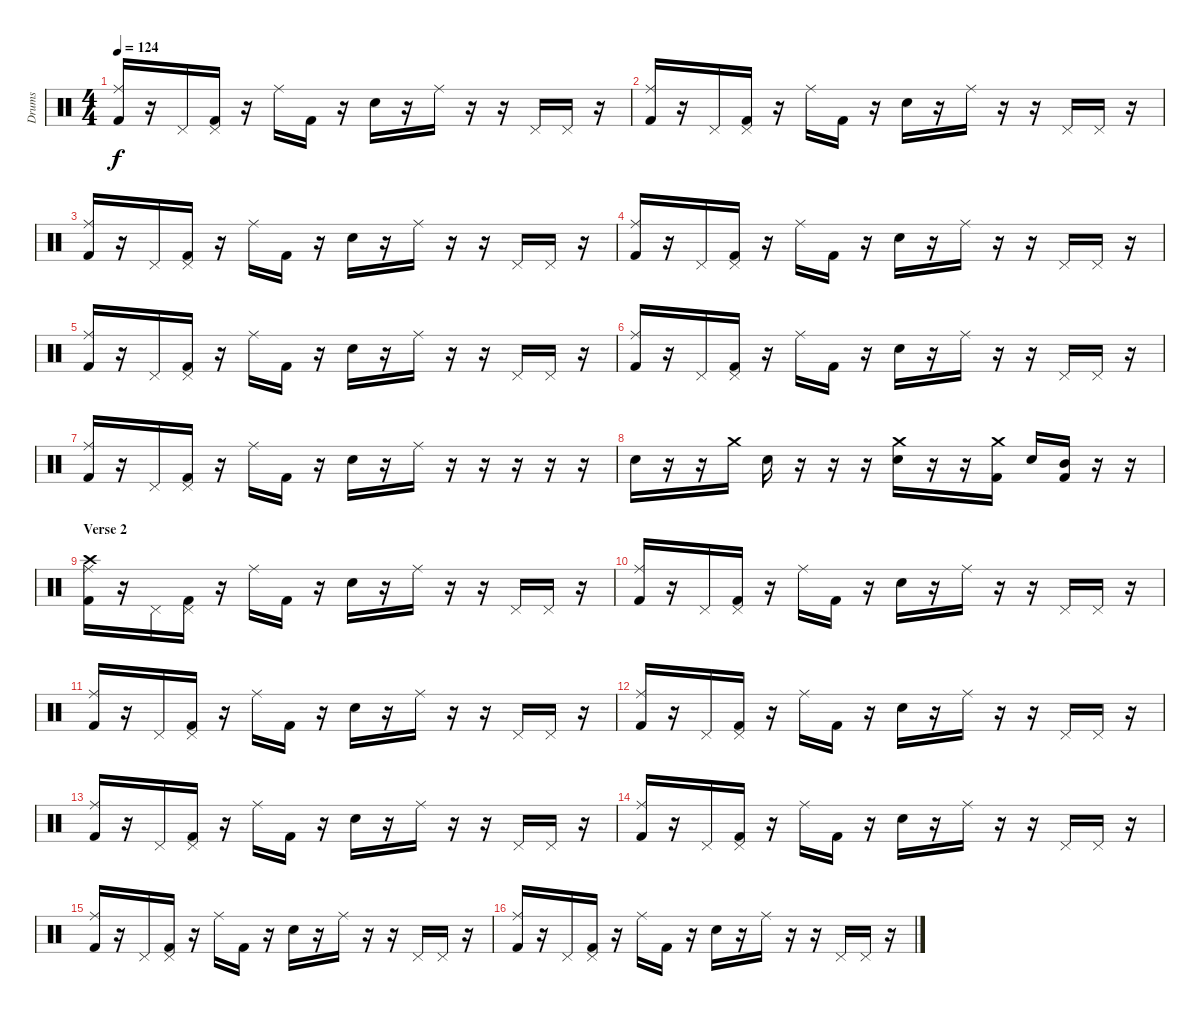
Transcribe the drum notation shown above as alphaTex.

\track ("Drums" "Drums") {instrument percussion}
\staff {score}
\articulation defaults
\ts (4 4)
\tempo 124
\clef neutral
\ks c
("Ride (middle)" "Kick (hit) 2").16{dy f} r.16 "Pedal Hi-Hat (hit)".16 ("Pedal Hi-Hat (hit)" "Kick (hit) 2").16 r.16 "Ride (middle)".16 "Kick (hit) 2".16 r.16 "Electric Snare (hit)".16 r.16 "Ride (middle)".16 r.16 r.16 "Pedal Hi-Hat (hit)".16 "Pedal Hi-Hat (hit)".16 r.16 |
("Ride (middle)" "Kick (hit) 2").16 r.16 "Pedal Hi-Hat (hit)".16 ("Pedal Hi-Hat (hit)" "Kick (hit) 2").16 r.16 "Ride (middle)".16 "Kick (hit) 2".16 r.16 "Electric Snare (hit)".16 r.16 "Ride (middle)".16 r.16 r.16 "Pedal Hi-Hat (hit)".16 "Pedal Hi-Hat (hit)".16 r.16 |
("Ride (middle)" "Kick (hit) 2").16 r.16 "Pedal Hi-Hat (hit)".16 ("Pedal Hi-Hat (hit)" "Kick (hit) 2").16 r.16 "Ride (middle)".16 "Kick (hit) 2".16 r.16 "Electric Snare (hit)".16 r.16 "Ride (middle)".16 r.16 r.16 "Pedal Hi-Hat (hit)".16 "Pedal Hi-Hat (hit)".16 r.16 |
("Ride (middle)" "Kick (hit) 2").16 r.16 "Pedal Hi-Hat (hit)".16 ("Pedal Hi-Hat (hit)" "Kick (hit) 2").16 r.16 "Ride (middle)".16 "Kick (hit) 2".16 r.16 "Electric Snare (hit)".16 r.16 "Ride (middle)".16 r.16 r.16 "Pedal Hi-Hat (hit)".16 "Pedal Hi-Hat (hit)".16 r.16 |
("Ride (middle)" "Kick (hit) 2").16 r.16 "Pedal Hi-Hat (hit)".16 ("Pedal Hi-Hat (hit)" "Kick (hit) 2").16 r.16 "Ride (middle)".16 "Kick (hit) 2".16 r.16 "Electric Snare (hit)".16 r.16 "Ride (middle)".16 r.16 r.16 "Pedal Hi-Hat (hit)".16 "Pedal Hi-Hat (hit)".16 r.16 |
("Ride (middle)" "Kick (hit) 2").16 r.16 "Pedal Hi-Hat (hit)".16 ("Pedal Hi-Hat (hit)" "Kick (hit) 2").16 r.16 "Ride (middle)".16 "Kick (hit) 2".16 r.16 "Electric Snare (hit)".16 r.16 "Ride (middle)".16 r.16 r.16 "Pedal Hi-Hat (hit)".16 "Pedal Hi-Hat (hit)".16 r.16 |
("Ride (middle)" "Kick (hit) 2").16 r.16 "Pedal Hi-Hat (hit)".16 ("Pedal Hi-Hat (hit)" "Kick (hit) 2").16 r.16 "Ride (middle)".16 "Kick (hit) 2".16 r.16 "Electric Snare (hit)".16 r.16 "Ride (middle)".16 r.16 r.16 r.16 r.16 r.16 |
"Electric Snare (hit)".16 r.16 r.16 "Crash medium (hit)".16 "Electric Snare (hit)".16 r.16 r.16 r.16 ("Crash medium (hit)" "Electric Snare (hit)").16 r.16 r.16 ("Crash medium (hit)" "Kick (hit) 2").16 "Electric Snare (hit)".16 ("Mid Tom (hit)" "Kick (hit) 2").16 r.16 r.16 |
\section ("" "Verse 2")
("Ride (middle)" "Crash high (hit)" "Kick (hit) 2").16 r.16 "Pedal Hi-Hat (hit)".16 ("Pedal Hi-Hat (hit)" "Kick (hit) 2").16 r.16 "Ride (middle)".16 "Kick (hit) 2".16 r.16 "Electric Snare (hit)".16 r.16 "Ride (middle)".16 r.16 r.16 "Pedal Hi-Hat (hit)".16 "Pedal Hi-Hat (hit)".16 r.16 |
("Ride (middle)" "Kick (hit) 2").16 r.16 "Pedal Hi-Hat (hit)".16 ("Pedal Hi-Hat (hit)" "Kick (hit) 2").16 r.16 "Ride (middle)".16 "Kick (hit) 2".16 r.16 "Electric Snare (hit)".16 r.16 "Ride (middle)".16 r.16 r.16 "Pedal Hi-Hat (hit)".16 "Pedal Hi-Hat (hit)".16 r.16 |
("Ride (middle)" "Kick (hit) 2").16 r.16 "Pedal Hi-Hat (hit)".16 ("Pedal Hi-Hat (hit)" "Kick (hit) 2").16 r.16 "Ride (middle)".16 "Kick (hit) 2".16 r.16 "Electric Snare (hit)".16 r.16 "Ride (middle)".16 r.16 r.16 "Pedal Hi-Hat (hit)".16 "Pedal Hi-Hat (hit)".16 r.16 |
("Ride (middle)" "Kick (hit) 2").16 r.16 "Pedal Hi-Hat (hit)".16 ("Pedal Hi-Hat (hit)" "Kick (hit) 2").16 r.16 "Ride (middle)".16 "Kick (hit) 2".16 r.16 "Electric Snare (hit)".16 r.16 "Ride (middle)".16 r.16 r.16 "Pedal Hi-Hat (hit)".16 "Pedal Hi-Hat (hit)".16 r.16 |
("Ride (middle)" "Kick (hit) 2").16 r.16 "Pedal Hi-Hat (hit)".16 ("Pedal Hi-Hat (hit)" "Kick (hit) 2").16 r.16 "Ride (middle)".16 "Kick (hit) 2".16 r.16 "Electric Snare (hit)".16 r.16 "Ride (middle)".16 r.16 r.16 "Pedal Hi-Hat (hit)".16 "Pedal Hi-Hat (hit)".16 r.16 |
("Ride (middle)" "Kick (hit) 2").16 r.16 "Pedal Hi-Hat (hit)".16 ("Pedal Hi-Hat (hit)" "Kick (hit) 2").16 r.16 "Ride (middle)".16 "Kick (hit) 2".16 r.16 "Electric Snare (hit)".16 r.16 "Ride (middle)".16 r.16 r.16 "Pedal Hi-Hat (hit)".16 "Pedal Hi-Hat (hit)".16 r.16 |
("Ride (middle)" "Kick (hit) 2").16 r.16 "Pedal Hi-Hat (hit)".16 ("Pedal Hi-Hat (hit)" "Kick (hit) 2").16 r.16 "Ride (middle)".16 "Kick (hit) 2".16 r.16 "Electric Snare (hit)".16 r.16 "Ride (middle)".16 r.16 r.16 "Pedal Hi-Hat (hit)".16 "Pedal Hi-Hat (hit)".16 r.16 |
("Ride (middle)" "Kick (hit) 2").16 r.16 "Pedal Hi-Hat (hit)".16 ("Pedal Hi-Hat (hit)" "Kick (hit) 2").16 r.16 "Ride (middle)".16 "Kick (hit) 2".16 r.16 "Electric Snare (hit)".16 r.16 "Ride (middle)".16 r.16 r.16 "Pedal Hi-Hat (hit)".16 "Pedal Hi-Hat (hit)".16 r.16
